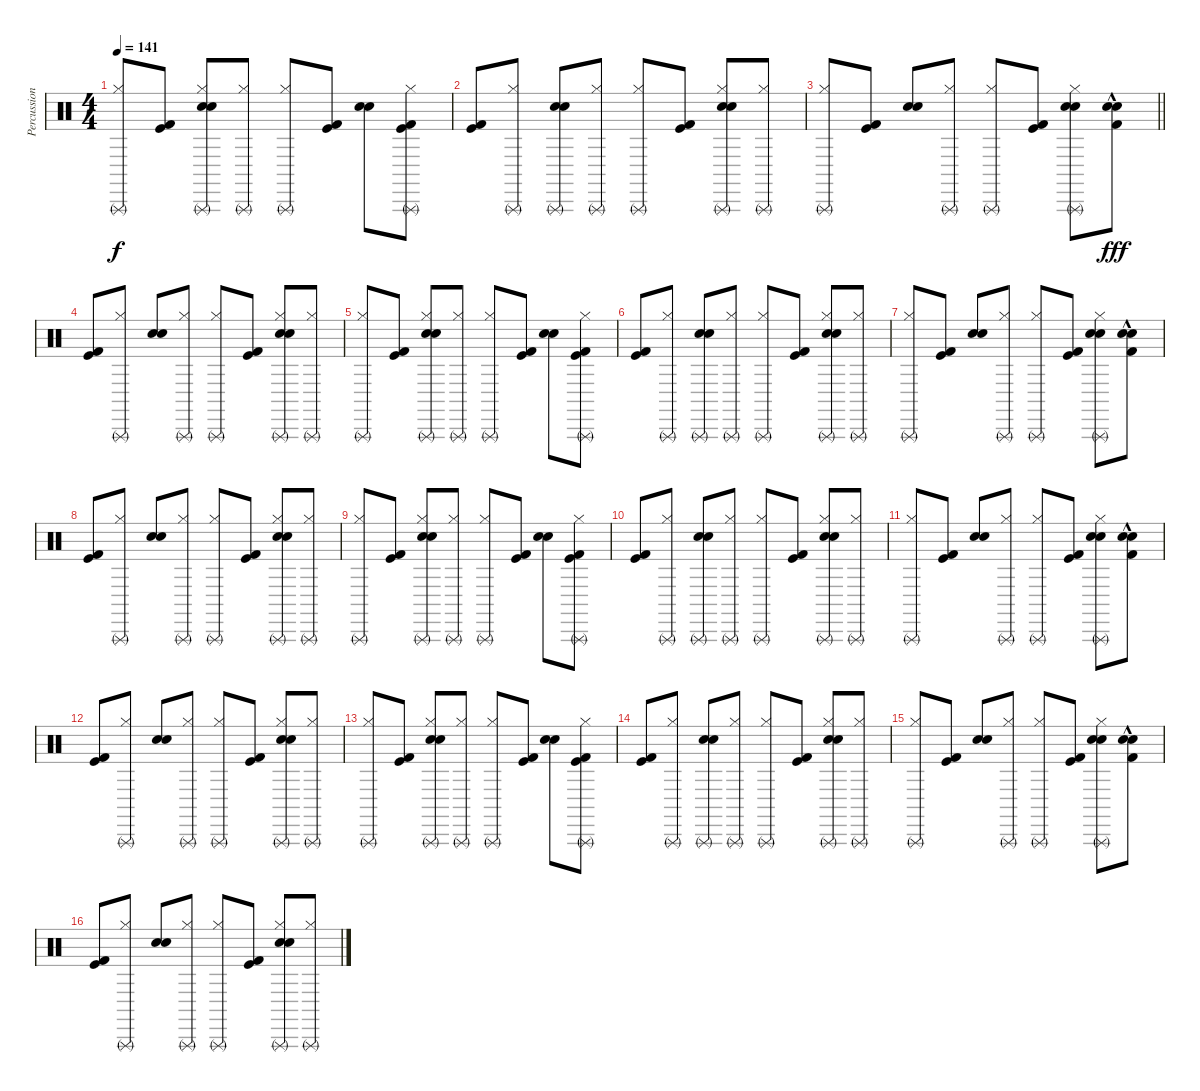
\track ("Percussion" "Percussion") {instrument percussion}
\staff {score}
\articulation defaults
\ts (4 4)
\tempo 141
\clef neutral
\ks c
("Hi-Hat (closed)" "Triangle (rnute)").8{dy f} ("Kick (hit)" "Kick (hit) 2").8 ("Snare (hit) 2" "Electric Snare (hit)" "Hi-Hat (closed)" "Triangle (rnute)").8 ("Hi-Hat (closed)" "Triangle (rnute)").8 ("Hi-Hat (closed)" "Triangle (rnute)").8 ("Kick (hit)" "Kick (hit) 2").8 ("Snare (hit) 2" "Electric Snare (hit)").8 ("Kick (hit)" "Kick (hit) 2" "Hi-Hat (closed)" "Triangle (rnute)").8 |
("Kick (hit)" "Kick (hit) 2").8 ("Hi-Hat (closed)" "Triangle (rnute)").8 ("Snare (hit) 2" "Electric Snare (hit)" "Triangle (rnute)").8 ("Hi-Hat (closed)" "Triangle (rnute)").8 ("Hi-Hat (closed)" "Triangle (rnute)").8 ("Kick (hit)" "Kick (hit) 2").8 ("Snare (hit) 2" "Electric Snare (hit)" "Hi-Hat (closed)" "Triangle (rnute)").8 ("Hi-Hat (closed)" "Triangle (rnute)").8 |
\barLineRight lightlight
("Hi-Hat (closed)" "Triangle (rnute)").8 ("Kick (hit)" "Kick (hit) 2").8 ("Snare (hit) 2" "Electric Snare (hit)").8 ("Hi-Hat (closed)" "Triangle (rnute)").8 ("Hi-Hat (closed)" "Triangle (rnute)").8 ("Kick (hit)" "Kick (hit) 2").8 ("Snare (hit) 2" "Electric Snare (hit)" "Hi-Hat (closed)" "Triangle (rnute)").8 ("Kick (hit) 2" "Snare (hit) 2" "Electric Snare (hit)"{hac}).8{dy fff} |
("Kick (hit)" "Kick (hit) 2").8 ("Hi-Hat (closed)" "Triangle (rnute)").8 ("Snare (hit) 2" "Electric Snare (hit)").8 ("Hi-Hat (closed)" "Triangle (rnute)").8 ("Hi-Hat (closed)" "Triangle (rnute)").8 ("Kick (hit)" "Kick (hit) 2").8 ("Snare (hit) 2" "Electric Snare (hit)" "Hi-Hat (closed)" "Triangle (rnute)").8 ("Hi-Hat (closed)" "Triangle (rnute)").8 |
("Hi-Hat (closed)" "Triangle (rnute)").8 ("Kick (hit)" "Kick (hit) 2").8 ("Snare (hit) 2" "Electric Snare (hit)" "Hi-Hat (closed)" "Triangle (rnute)").8 ("Hi-Hat (closed)" "Triangle (rnute)").8 ("Hi-Hat (closed)" "Triangle (rnute)").8 ("Kick (hit)" "Kick (hit) 2").8 ("Snare (hit) 2" "Electric Snare (hit)").8 ("Kick (hit)" "Kick (hit) 2" "Hi-Hat (closed)" "Triangle (rnute)").8 |
("Kick (hit)" "Kick (hit) 2").8 ("Hi-Hat (closed)" "Triangle (rnute)").8 ("Snare (hit) 2" "Electric Snare (hit)" "Triangle (rnute)").8 ("Hi-Hat (closed)" "Triangle (rnute)").8 ("Hi-Hat (closed)" "Triangle (rnute)").8 ("Kick (hit)" "Kick (hit) 2").8 ("Snare (hit) 2" "Electric Snare (hit)" "Hi-Hat (closed)" "Triangle (rnute)").8 ("Hi-Hat (closed)" "Triangle (rnute)").8 |
("Hi-Hat (closed)" "Triangle (rnute)").8 ("Kick (hit)" "Kick (hit) 2").8 ("Snare (hit) 2" "Electric Snare (hit)").8 ("Hi-Hat (closed)" "Triangle (rnute)").8 ("Hi-Hat (closed)" "Triangle (rnute)").8 ("Kick (hit)" "Kick (hit) 2").8 ("Snare (hit) 2" "Electric Snare (hit)" "Hi-Hat (closed)" "Triangle (rnute)").8 ("Kick (hit) 2" "Snare (hit) 2" "Electric Snare (hit)"{hac}).8 |
("Kick (hit)" "Kick (hit) 2").8 ("Hi-Hat (closed)" "Triangle (rnute)").8 ("Snare (hit) 2" "Electric Snare (hit)").8 ("Hi-Hat (closed)" "Triangle (rnute)").8 ("Hi-Hat (closed)" "Triangle (rnute)").8 ("Kick (hit)" "Kick (hit) 2").8 ("Snare (hit) 2" "Electric Snare (hit)" "Hi-Hat (closed)" "Triangle (rnute)").8 ("Hi-Hat (closed)" "Triangle (rnute)").8 |
("Hi-Hat (closed)" "Triangle (rnute)").8 ("Kick (hit)" "Kick (hit) 2").8 ("Snare (hit) 2" "Electric Snare (hit)" "Hi-Hat (closed)" "Triangle (rnute)").8 ("Hi-Hat (closed)" "Triangle (rnute)").8 ("Hi-Hat (closed)" "Triangle (rnute)").8 ("Kick (hit)" "Kick (hit) 2").8 ("Snare (hit) 2" "Electric Snare (hit)").8 ("Kick (hit)" "Kick (hit) 2" "Hi-Hat (closed)" "Triangle (rnute)").8 |
("Kick (hit)" "Kick (hit) 2").8 ("Hi-Hat (closed)" "Triangle (rnute)").8 ("Snare (hit) 2" "Electric Snare (hit)" "Triangle (rnute)").8 ("Hi-Hat (closed)" "Triangle (rnute)").8 ("Hi-Hat (closed)" "Triangle (rnute)").8 ("Kick (hit)" "Kick (hit) 2").8 ("Snare (hit) 2" "Electric Snare (hit)" "Hi-Hat (closed)" "Triangle (rnute)").8 ("Hi-Hat (closed)" "Triangle (rnute)").8 |
("Hi-Hat (closed)" "Triangle (rnute)").8 ("Kick (hit)" "Kick (hit) 2").8 ("Snare (hit) 2" "Electric Snare (hit)").8 ("Hi-Hat (closed)" "Triangle (rnute)").8 ("Hi-Hat (closed)" "Triangle (rnute)").8 ("Kick (hit)" "Kick (hit) 2").8 ("Snare (hit) 2" "Electric Snare (hit)" "Hi-Hat (closed)" "Triangle (rnute)").8 ("Kick (hit) 2" "Snare (hit) 2" "Electric Snare (hit)"{hac}).8 |
("Kick (hit)" "Kick (hit) 2").8 ("Hi-Hat (closed)" "Triangle (rnute)").8 ("Snare (hit) 2" "Electric Snare (hit)").8 ("Hi-Hat (closed)" "Triangle (rnute)").8 ("Hi-Hat (closed)" "Triangle (rnute)").8 ("Kick (hit)" "Kick (hit) 2").8 ("Snare (hit) 2" "Electric Snare (hit)" "Hi-Hat (closed)" "Triangle (rnute)").8 ("Hi-Hat (closed)" "Triangle (rnute)").8 |
("Hi-Hat (closed)" "Triangle (rnute)").8 ("Kick (hit)" "Kick (hit) 2").8 ("Snare (hit) 2" "Electric Snare (hit)" "Hi-Hat (closed)" "Triangle (rnute)").8 ("Hi-Hat (closed)" "Triangle (rnute)").8 ("Hi-Hat (closed)" "Triangle (rnute)").8 ("Kick (hit)" "Kick (hit) 2").8 ("Snare (hit) 2" "Electric Snare (hit)").8 ("Kick (hit)" "Kick (hit) 2" "Hi-Hat (closed)" "Triangle (rnute)").8 |
("Kick (hit)" "Kick (hit) 2").8 ("Hi-Hat (closed)" "Triangle (rnute)").8 ("Snare (hit) 2" "Electric Snare (hit)" "Triangle (rnute)").8 ("Hi-Hat (closed)" "Triangle (rnute)").8 ("Hi-Hat (closed)" "Triangle (rnute)").8 ("Kick (hit)" "Kick (hit) 2").8 ("Snare (hit) 2" "Electric Snare (hit)" "Hi-Hat (closed)" "Triangle (rnute)").8 ("Hi-Hat (closed)" "Triangle (rnute)").8 |
("Hi-Hat (closed)" "Triangle (rnute)").8 ("Kick (hit)" "Kick (hit) 2").8 ("Snare (hit) 2" "Electric Snare (hit)").8 ("Hi-Hat (closed)" "Triangle (rnute)").8 ("Hi-Hat (closed)" "Triangle (rnute)").8 ("Kick (hit)" "Kick (hit) 2").8 ("Snare (hit) 2" "Electric Snare (hit)" "Hi-Hat (closed)" "Triangle (rnute)").8 ("Kick (hit) 2" "Snare (hit) 2" "Electric Snare (hit)"{hac}).8 |
("Kick (hit)" "Kick (hit) 2").8 ("Hi-Hat (closed)" "Triangle (rnute)").8 ("Snare (hit) 2" "Electric Snare (hit)").8 ("Hi-Hat (closed)" "Triangle (rnute)").8 ("Hi-Hat (closed)" "Triangle (rnute)").8 ("Kick (hit)" "Kick (hit) 2").8 ("Snare (hit) 2" "Electric Snare (hit)" "Hi-Hat (closed)" "Triangle (rnute)").8 ("Hi-Hat (closed)" "Triangle (rnute)").8
